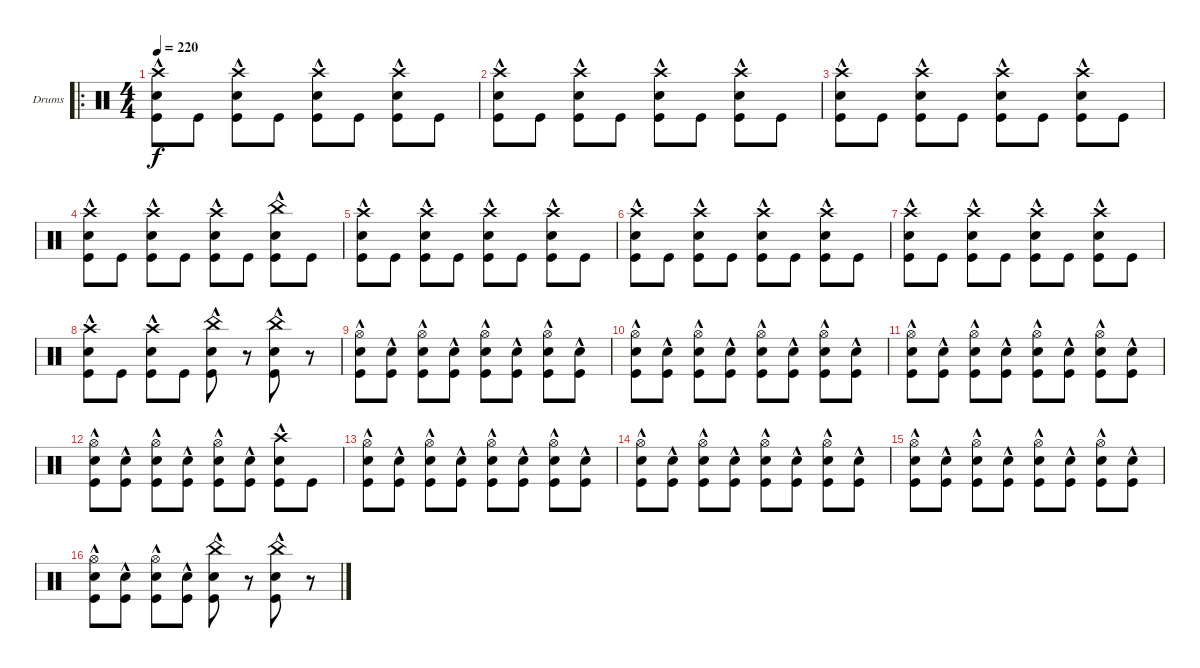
\defaultSystemsLayout 4
\bracketExtendMode groupsimilarinstruments
\firstSystemTrackNameOrientation horizontal
\otherSystemsTrackNameOrientation horizontal
\track ("Drumkit" "Drums") {instrument percussion}
\staff {score}
\articulation defaults
\ro
\ts (4 4)
\tempo 220
\clef neutral
\scale
0.502222
\ks c
("Kick (hit)" "Snare (hit) 2"{hac} "Crash high (hit)").8{dy f} "Kick (hit)".8 ("Kick (hit)" "Snare (hit) 2"{hac} "Crash high (hit)").8 "Kick (hit)".8 ("Kick (hit)" "Snare (hit) 2"{hac} "Crash high (hit)").8 "Kick (hit)".8 ("Kick (hit)" "Snare (hit) 2"{hac} "Crash high (hit)").8 "Kick (hit)".8 |
\scale
0.248889 ("Kick (hit)" "Snare (hit) 2"{hac} "Crash high (hit)").8 "Kick (hit)".8 ("Kick (hit)" "Snare (hit) 2"{hac} "Crash high (hit)").8 "Kick (hit)".8 ("Kick (hit)" "Snare (hit) 2"{hac} "Crash high (hit)").8 "Kick (hit)".8 ("Kick (hit)" "Snare (hit) 2"{hac} "Crash high (hit)").8 "Kick (hit)".8 |
\scale
0.248889 ("Kick (hit)" "Snare (hit) 2"{hac} "Crash high (hit)").8 "Kick (hit)".8 ("Kick (hit)" "Snare (hit) 2"{hac} "Crash high (hit)").8 "Kick (hit)".8 ("Kick (hit)" "Snare (hit) 2"{hac} "Crash high (hit)").8 "Kick (hit)".8 ("Kick (hit)" "Snare (hit) 2"{hac} "Crash high (hit)").8 "Kick (hit)".8 |
\scale
0.333333 ("Kick (hit)" "Snare (hit) 2"{hac} "Crash high (hit)").8 "Kick (hit)".8 ("Kick (hit)" "Snare (hit) 2"{hac} "Crash high (hit)").8 "Kick (hit)".8 ("Kick (hit)" "Snare (hit) 2"{hac} "Crash high (hit)").8 "Kick (hit)".8 ("Kick (hit)" "Snare (hit) 2"{hac} "China (hit)").8 "Kick (hit)".8 |
\scale
0.333333 ("Kick (hit)" "Snare (hit) 2"{hac} "Crash high (hit)").8 "Kick (hit)".8 ("Kick (hit)" "Snare (hit) 2"{hac} "Crash high (hit)").8 "Kick (hit)".8 ("Kick (hit)" "Snare (hit) 2"{hac} "Crash high (hit)").8 "Kick (hit)".8 ("Kick (hit)" "Snare (hit) 2"{hac} "Crash high (hit)").8 "Kick (hit)".8 |
\scale
0.333333 ("Kick (hit)" "Snare (hit) 2"{hac} "Crash high (hit)").8 "Kick (hit)".8 ("Kick (hit)" "Snare (hit) 2"{hac} "Crash high (hit)").8 "Kick (hit)".8 ("Kick (hit)" "Snare (hit) 2"{hac} "Crash high (hit)").8 "Kick (hit)".8 ("Kick (hit)" "Snare (hit) 2"{hac} "Crash high (hit)").8 "Kick (hit)".8 |
\scale
0.333333 ("Kick (hit)" "Snare (hit) 2"{hac} "Crash high (hit)").8 "Kick (hit)".8 ("Kick (hit)" "Snare (hit) 2"{hac} "Crash high (hit)").8 "Kick (hit)".8 ("Kick (hit)" "Snare (hit) 2"{hac} "Crash high (hit)").8 "Kick (hit)".8 ("Kick (hit)" "Snare (hit) 2"{hac} "Crash high (hit)").8 "Kick (hit)".8 |
\scale
0.333333 ("Kick (hit)" "Snare (hit) 2"{hac} "Crash high (hit)").8 "Kick (hit)".8 ("Kick (hit)" "Snare (hit) 2"{hac} "Crash high (hit)").8 "Kick (hit)".8 ("Kick (hit)" "Snare (hit) 2"{hac} "China (hit)").8 r.8 ("Kick (hit)" "Snare (hit) 2"{hac} "China (hit)").8 r.8 |
\scale
0.333333 ("Kick (hit)" "Snare (hit) 2"{hac} "Hi-Hat (open)").8 ("Kick (hit)" "Snare (hit) 2"{hac}).8 ("Kick (hit)" "Snare (hit) 2"{hac} "Hi-Hat (open)").8 ("Kick (hit)" "Snare (hit) 2"{hac}).8 ("Kick (hit)" "Snare (hit) 2"{hac} "Hi-Hat (open)").8 ("Kick (hit)" "Snare (hit) 2"{hac}).8 ("Kick (hit)" "Snare (hit) 2"{hac} "Hi-Hat (open)").8 ("Kick (hit)" "Snare (hit) 2"{hac}).8 |
\scale
0.333333 ("Kick (hit)" "Snare (hit) 2"{hac} "Hi-Hat (open)").8 ("Kick (hit)" "Snare (hit) 2"{hac}).8 ("Kick (hit)" "Snare (hit) 2"{hac} "Hi-Hat (open)").8 ("Kick (hit)" "Snare (hit) 2"{hac}).8 ("Kick (hit)" "Snare (hit) 2"{hac} "Hi-Hat (open)").8 ("Kick (hit)" "Snare (hit) 2"{hac}).8 ("Kick (hit)" "Snare (hit) 2"{hac} "Hi-Hat (open)").8 ("Kick (hit)" "Snare (hit) 2"{hac}).8 |
\scale
0.333333 ("Kick (hit)" "Snare (hit) 2"{hac} "Hi-Hat (open)").8 ("Kick (hit)" "Snare (hit) 2"{hac}).8 ("Kick (hit)" "Snare (hit) 2"{hac} "Hi-Hat (open)").8 ("Kick (hit)" "Snare (hit) 2"{hac}).8 ("Kick (hit)" "Snare (hit) 2"{hac} "Hi-Hat (open)").8 ("Kick (hit)" "Snare (hit) 2"{hac}).8 ("Kick (hit)" "Snare (hit) 2"{hac} "Hi-Hat (open)").8 ("Kick (hit)" "Snare (hit) 2"{hac}).8 |
\scale
0.333333 ("Kick (hit)" "Snare (hit) 2"{hac} "Hi-Hat (open)").8 ("Kick (hit)" "Snare (hit) 2"{hac}).8 ("Kick (hit)" "Snare (hit) 2"{hac} "Hi-Hat (open)").8 ("Kick (hit)" "Snare (hit) 2"{hac}).8 ("Kick (hit)" "Snare (hit) 2"{hac} "Hi-Hat (open)").8 ("Kick (hit)" "Snare (hit) 2"{hac}).8 ("Kick (hit)" "Snare (hit) 2"{hac} "Crash high (hit)").8 "Kick (hit)".8 |
\scale
0.333333 ("Kick (hit)" "Snare (hit) 2"{hac} "Hi-Hat (open)").8 ("Kick (hit)" "Snare (hit) 2"{hac}).8 ("Kick (hit)" "Snare (hit) 2"{hac} "Hi-Hat (open)").8 ("Kick (hit)" "Snare (hit) 2"{hac}).8 ("Kick (hit)" "Snare (hit) 2"{hac} "Hi-Hat (open)").8 ("Kick (hit)" "Snare (hit) 2"{hac}).8 ("Kick (hit)" "Snare (hit) 2"{hac} "Hi-Hat (open)").8 ("Kick (hit)" "Snare (hit) 2"{hac}).8 |
\scale
0.333333 ("Kick (hit)" "Snare (hit) 2"{hac} "Hi-Hat (open)").8 ("Kick (hit)" "Snare (hit) 2"{hac}).8 ("Kick (hit)" "Snare (hit) 2"{hac} "Hi-Hat (open)").8 ("Kick (hit)" "Snare (hit) 2"{hac}).8 ("Kick (hit)" "Snare (hit) 2"{hac} "Hi-Hat (open)").8 ("Kick (hit)" "Snare (hit) 2"{hac}).8 ("Kick (hit)" "Snare (hit) 2"{hac} "Hi-Hat (open)").8 ("Kick (hit)" "Snare (hit) 2"{hac}).8 |
\scale
0.333333 ("Kick (hit)" "Snare (hit) 2"{hac} "Hi-Hat (open)").8 ("Kick (hit)" "Snare (hit) 2"{hac}).8 ("Kick (hit)" "Snare (hit) 2"{hac} "Hi-Hat (open)").8 ("Kick (hit)" "Snare (hit) 2"{hac}).8 ("Kick (hit)" "Snare (hit) 2"{hac} "Hi-Hat (open)").8 ("Kick (hit)" "Snare (hit) 2"{hac}).8 ("Kick (hit)" "Snare (hit) 2"{hac} "Hi-Hat (open)").8 ("Kick (hit)" "Snare (hit) 2"{hac}).8 |
\scale
0.333333 ("Kick (hit)" "Snare (hit) 2"{hac} "Hi-Hat (open)").8 ("Kick (hit)" "Snare (hit) 2"{hac}).8 ("Kick (hit)" "Snare (hit) 2"{hac} "Hi-Hat (open)").8 ("Kick (hit)" "Snare (hit) 2"{hac}).8 ("Kick (hit)" "Snare (hit) 2"{hac} "China (hit)").8 r.8 ("Kick (hit)" "Snare (hit) 2"{hac} "China (hit)").8 r.8
